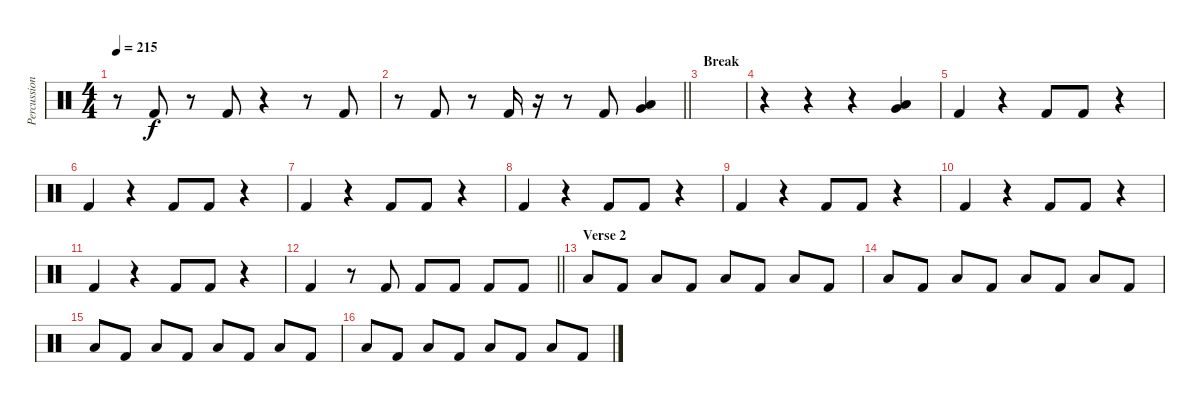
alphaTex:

\track ("Percussion" "Percussion") {instrument percussion}
\staff {score}
\articulation defaults
\ts (4 4)
\tempo 215
\clef neutral
\ks c
r.8{dy f} "Kick (hit) 2".8 r.8 "Kick (hit) 2".8 r.4 r.8 "Kick (hit) 2".8 |
\barLineRight lightlight
r.8 "Kick (hit) 2".8 r.8 "Kick (hit) 2".16 r.16 r.8 "Kick (hit) 2".8 ("Very Low Tom (hit)" "Low Tom (hit)").4 |
\section ("" "Break")
|
r.4 r.4 r.4 ("Very Low Tom (hit)" "Low Tom (hit)").4 |
"Kick (hit) 2".4 r.4 "Kick (hit) 2".8 "Kick (hit) 2".8 r.4 |
"Kick (hit) 2".4 r.4 "Kick (hit) 2".8 "Kick (hit) 2".8 r.4 |
"Kick (hit) 2".4 r.4 "Kick (hit) 2".8 "Kick (hit) 2".8 r.4 |
"Kick (hit) 2".4 r.4 "Kick (hit) 2".8 "Kick (hit) 2".8 r.4 |
"Kick (hit) 2".4 r.4 "Kick (hit) 2".8 "Kick (hit) 2".8 r.4 |
"Kick (hit) 2".4 r.4 "Kick (hit) 2".8 "Kick (hit) 2".8 r.4 |
"Kick (hit) 2".4 r.4 "Kick (hit) 2".8 "Kick (hit) 2".8 r.4 |
\barLineRight lightlight "Kick (hit) 2".4
r.8 "Kick (hit) 2".8 "Kick (hit) 2".8 "Kick (hit) 2".8 "Kick (hit) 2".8 "Kick (hit) 2".8 |
\section ("" "Verse 2")
"Low Floor Tom (hit)".8 "Kick (hit) 2".8 "Low Floor Tom (hit)".8 "Kick (hit) 2".8 "Low Floor Tom (hit)".8 "Kick (hit) 2".8 "Low Floor Tom (hit)".8 "Kick (hit) 2".8 |
"Low Floor Tom (hit)".8 "Kick (hit) 2".8 "Low Floor Tom (hit)".8 "Kick (hit) 2".8 "Low Floor Tom (hit)".8 "Kick (hit) 2".8 "Low Floor Tom (hit)".8 "Kick (hit) 2".8 |
"Low Floor Tom (hit)".8 "Kick (hit) 2".8 "Low Floor Tom (hit)".8 "Kick (hit) 2".8 "Low Floor Tom (hit)".8 "Kick (hit) 2".8 "Low Floor Tom (hit)".8 "Kick (hit) 2".8 |
"Low Floor Tom (hit)".8 "Kick (hit) 2".8 "Low Floor Tom (hit)".8 "Kick (hit) 2".8 "Low Floor Tom (hit)".8 "Kick (hit) 2".8 "Low Floor Tom (hit)".8 "Kick (hit) 2".8
